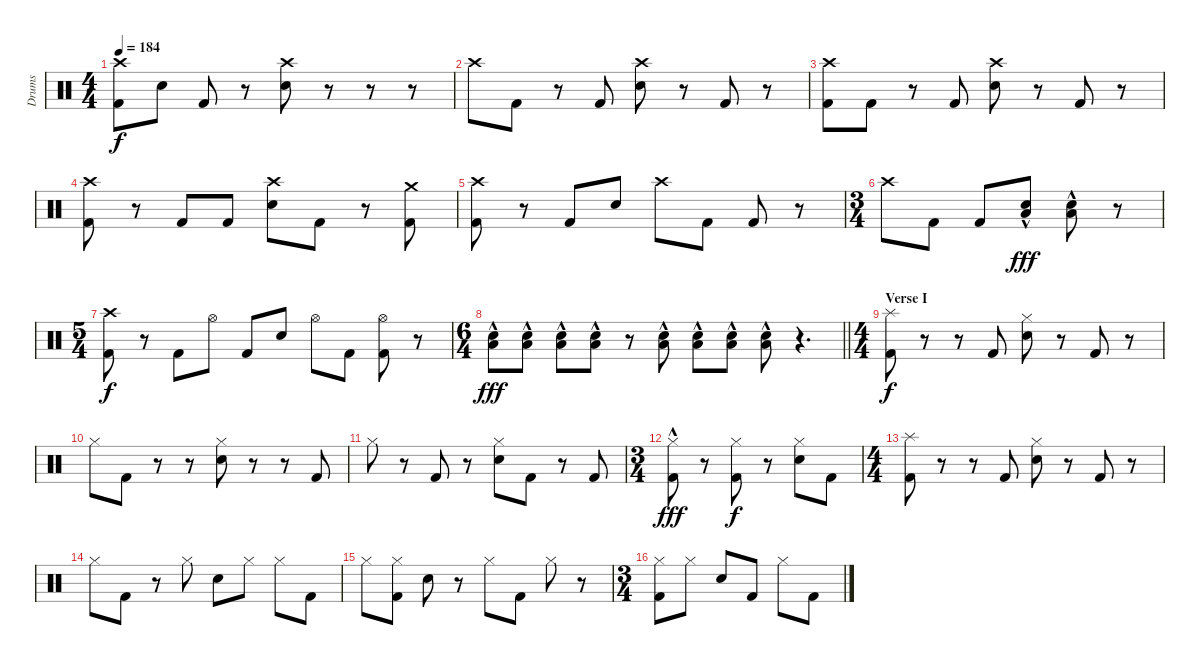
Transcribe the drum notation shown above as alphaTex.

\track ("Drums" "Drums") {instrument percussion}
\staff {score}
\articulation defaults
\ts (4 4)
\tempo 184
\clef neutral
\ks c
("Crash high (hit)" "Kick (hit) 2").8{dy f} "Snare (hit) 2".8 "Kick (hit) 2".8 r.8 ("Crash high (hit)" "Snare (hit) 2").8 r.8 r.8 r.8 |
"Crash high (hit)".8 "Kick (hit) 2".8 r.8 "Kick (hit) 2".8 ("Crash high (hit)" "Snare (hit) 2").8 r.8 "Kick (hit) 2".8 r.8 |
("Crash high (hit)" "Kick (hit) 2").8 "Kick (hit) 2".8 r.8 "Kick (hit) 2".8 ("Crash high (hit)" "Snare (hit) 2").8 r.8 "Kick (hit) 2".8 r.8 |
("Crash high (hit)" "Kick (hit) 2").8 r.8 "Kick (hit) 2".8 "Kick (hit) 2".8 ("Crash high (hit)" "Snare (hit) 2").8 "Kick (hit) 2".8 r.8 ("Crash medium (hit)" "Kick (hit) 2").8 |
("Crash high (hit)" "Kick (hit) 2").8 r.8 "Kick (hit) 2".8 "Snare (hit) 2".8 "Crash high (hit)".8 "Kick (hit) 2".8 "Kick (hit) 2".8 r.8 |
\ts (3 4)
"Crash high (hit)".8 "Kick (hit) 2".8 "Kick (hit) 2".8 ("Low Floor Tom (hit)"{hac} "Snare (hit) 2"{hac}).8{dy fff} ("Low Floor Tom (hit)"{hac} "Snare (hit) 2"{hac}).8 r.8 |
\ts (5 4)
("Crash high (hit)" "Kick (hit) 2").8{dy f} r.8 "Kick (hit) 2".8 "Hi-Hat (open)".8 "Kick (hit) 2".8 "Snare (hit) 2".8 "Hi-Hat (open)".8 "Kick (hit) 2".8 ("Hi-Hat (open)" "Kick (hit) 2").8 r.8 |
\ts (6 4)
\barLineRight lightlight
("Snare (hit) 2"{hac} "Low Floor Tom (hit)"{hac}).8{dy fff} ("Snare (hit) 2"{hac} "Low Floor Tom (hit)"{hac}).8 ("Snare (hit) 2"{hac} "Low Floor Tom (hit)"{hac}).8 ("Snare (hit) 2"{hac} "Low Floor Tom (hit)"{hac}).8 r.8 ("Snare (hit) 2"{hac} "Low Floor Tom (hit)"{hac}).8 ("Low Floor Tom (hit)"{hac} "Snare (hit) 2"{hac}).8 ("Low Floor Tom (hit)"{hac} "Snare (hit) 2"{hac}).8 ("Low Floor Tom (hit)"{hac} "Snare (hit) 2"{hac}).8 r.4{d} |
\ts (4 4)
\section ("" "Verse I")
("Splash (hit)" "Kick (hit) 2").8{dy f volume 4} r.8 r.8 "Kick (hit) 2".8 ("Hi-Hat (closed)" "Snare (hit) 2").8 r.8 "Kick (hit) 2".8 r.8 |
"Hi-Hat (closed)".8 "Kick (hit) 2".8 r.8 r.8 ("Hi-Hat (closed)" "Snare (hit) 2").8 r.8 r.8 "Kick (hit) 2".8 |
"Hi-Hat (closed)".8 r.8 "Kick (hit) 2".8 r.8 ("Hi-Hat (closed)" "Snare (hit) 2").8 "Kick (hit) 2".8 r.8 "Kick (hit) 2".8 |
\ts (3 4)
("Hi-Hat (closed)"{hac} "Kick (hit) 2").8{dy fff} r.8 ("Hi-Hat (closed)" "Kick (hit) 2").8{dy f} r.8 ("Hi-Hat (closed)" "Snare (hit) 2").8 "Kick (hit) 2".8 |
\ts (4 4)
("Splash (hit)" "Kick (hit) 2").8 r.8 r.8 "Kick (hit) 2".8 ("Hi-Hat (closed)" "Snare (hit) 2").8 r.8 "Kick (hit) 2".8 r.8 |
"Hi-Hat (closed)".8 "Kick (hit) 2".8 r.8 "Hi-Hat (closed)".8 "Snare (hit) 2".8 "Hi-Hat (closed)".8 "Hi-Hat (closed)".8 "Kick (hit) 2".8 |
"Hi-Hat (closed)".8 ("Hi-Hat (closed)" "Kick (hit) 2").8 "Snare (hit) 2".8 r.8 "Hi-Hat (closed)".8 "Kick (hit) 2".8 "Hi-Hat (closed)".8 r.8 |
\ts (3 4)
("Hi-Hat (closed)" "Kick (hit) 2").8 "Hi-Hat (closed)".8 "Snare (hit) 2".8 "Kick (hit) 2".8 "Hi-Hat (closed)".8 "Kick (hit) 2".8
